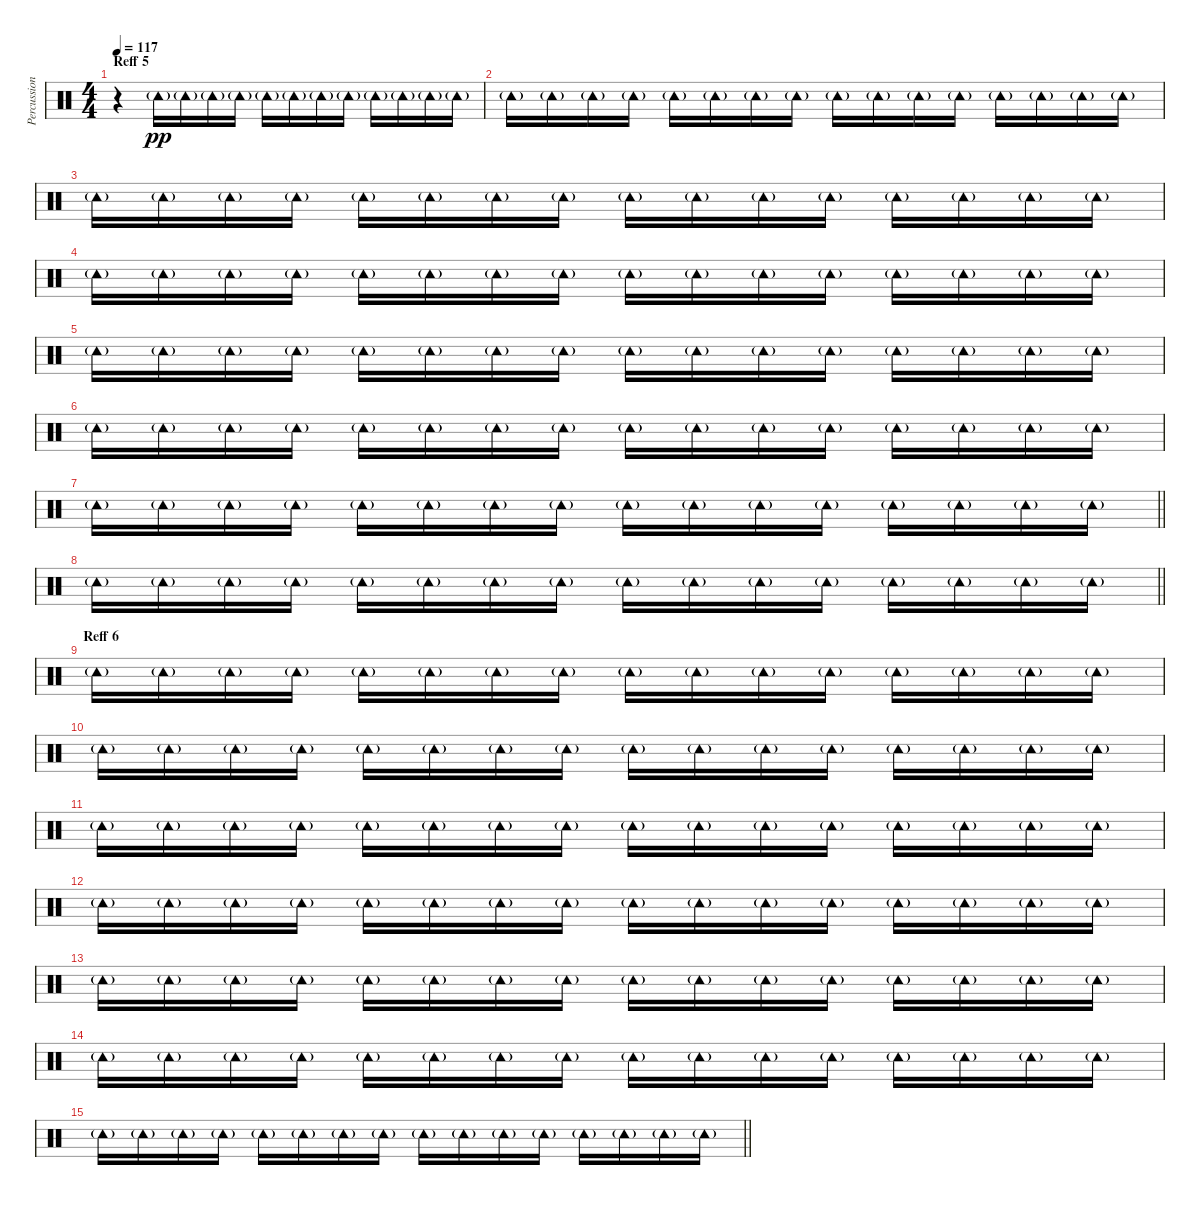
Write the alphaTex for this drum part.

\track ("Percussion 2" "Percussion") {instrument percussion}
\staff {score}
\articulation defaults
\ts (4 4)
\section ("" "Reff 5")
\tempo 117
\clef neutral
\ks c
r.4{dy pp} "Tambourine (hit)"{g}.16 "Tambourine (hit)"{g}.16 "Tambourine (hit)"{g}.16 "Tambourine (hit)"{g}.16 "Tambourine (hit)"{g}.16 "Tambourine (hit)"{g}.16 "Tambourine (hit)"{g}.16 "Tambourine (hit)"{g}.16 "Tambourine (hit)"{g}.16 "Tambourine (hit)"{g}.16 "Tambourine (hit)"{g}.16 "Tambourine (hit)"{g}.16 |
"Tambourine (hit)"{g}.16 "Tambourine (hit)"{g}.16 "Tambourine (hit)"{g}.16 "Tambourine (hit)"{g}.16 "Tambourine (hit)"{g}.16 "Tambourine (hit)"{g}.16 "Tambourine (hit)"{g}.16 "Tambourine (hit)"{g}.16 "Tambourine (hit)"{g}.16 "Tambourine (hit)"{g}.16 "Tambourine (hit)"{g}.16 "Tambourine (hit)"{g}.16 "Tambourine (hit)"{g}.16 "Tambourine (hit)"{g}.16 "Tambourine (hit)"{g}.16 "Tambourine (hit)"{g}.16 |
"Tambourine (hit)"{g}.16 "Tambourine (hit)"{g}.16 "Tambourine (hit)"{g}.16 "Tambourine (hit)"{g}.16 "Tambourine (hit)"{g}.16 "Tambourine (hit)"{g}.16 "Tambourine (hit)"{g}.16 "Tambourine (hit)"{g}.16 "Tambourine (hit)"{g}.16 "Tambourine (hit)"{g}.16 "Tambourine (hit)"{g}.16 "Tambourine (hit)"{g}.16 "Tambourine (hit)"{g}.16 "Tambourine (hit)"{g}.16 "Tambourine (hit)"{g}.16 "Tambourine (hit)"{g}.16 |
"Tambourine (hit)"{g}.16 "Tambourine (hit)"{g}.16 "Tambourine (hit)"{g}.16 "Tambourine (hit)"{g}.16 "Tambourine (hit)"{g}.16 "Tambourine (hit)"{g}.16 "Tambourine (hit)"{g}.16 "Tambourine (hit)"{g}.16 "Tambourine (hit)"{g}.16 "Tambourine (hit)"{g}.16 "Tambourine (hit)"{g}.16 "Tambourine (hit)"{g}.16 "Tambourine (hit)"{g}.16 "Tambourine (hit)"{g}.16 "Tambourine (hit)"{g}.16 "Tambourine (hit)"{g}.16 |
"Tambourine (hit)"{g}.16 "Tambourine (hit)"{g}.16 "Tambourine (hit)"{g}.16 "Tambourine (hit)"{g}.16 "Tambourine (hit)"{g}.16 "Tambourine (hit)"{g}.16 "Tambourine (hit)"{g}.16 "Tambourine (hit)"{g}.16 "Tambourine (hit)"{g}.16 "Tambourine (hit)"{g}.16 "Tambourine (hit)"{g}.16 "Tambourine (hit)"{g}.16 "Tambourine (hit)"{g}.16 "Tambourine (hit)"{g}.16 "Tambourine (hit)"{g}.16 "Tambourine (hit)"{g}.16 |
"Tambourine (hit)"{g}.16 "Tambourine (hit)"{g}.16 "Tambourine (hit)"{g}.16 "Tambourine (hit)"{g}.16 "Tambourine (hit)"{g}.16 "Tambourine (hit)"{g}.16 "Tambourine (hit)"{g}.16 "Tambourine (hit)"{g}.16 "Tambourine (hit)"{g}.16 "Tambourine (hit)"{g}.16 "Tambourine (hit)"{g}.16 "Tambourine (hit)"{g}.16 "Tambourine (hit)"{g}.16 "Tambourine (hit)"{g}.16 "Tambourine (hit)"{g}.16 "Tambourine (hit)"{g}.16 |
\barLineRight lightlight "Tambourine (hit)"{g}.16 "Tambourine (hit)"{g}.16 "Tambourine (hit)"{g}.16 "Tambourine (hit)"{g}.16 "Tambourine (hit)"{g}.16 "Tambourine (hit)"{g}.16 "Tambourine (hit)"{g}.16 "Tambourine (hit)"{g}.16 "Tambourine (hit)"{g}.16 "Tambourine (hit)"{g}.16 "Tambourine (hit)"{g}.16 "Tambourine (hit)"{g}.16 "Tambourine (hit)"{g}.16 "Tambourine (hit)"{g}.16 "Tambourine (hit)"{g}.16 "Tambourine (hit)"{g}.16
|
\barLineRight lightlight "Tambourine (hit)"{g}.16 "Tambourine (hit)"{g}.16 "Tambourine (hit)"{g}.16 "Tambourine (hit)"{g}.16 "Tambourine (hit)"{g}.16 "Tambourine (hit)"{g}.16 "Tambourine (hit)"{g}.16 "Tambourine (hit)"{g}.16 "Tambourine (hit)"{g}.16 "Tambourine (hit)"{g}.16 "Tambourine (hit)"{g}.16 "Tambourine (hit)"{g}.16 "Tambourine (hit)"{g}.16 "Tambourine (hit)"{g}.16 "Tambourine (hit)"{g}.16 "Tambourine (hit)"{g}.16
|
\section ("" "Reff 6")
"Tambourine (hit)"{g}.16 "Tambourine (hit)"{g}.16 "Tambourine (hit)"{g}.16 "Tambourine (hit)"{g}.16 "Tambourine (hit)"{g}.16 "Tambourine (hit)"{g}.16 "Tambourine (hit)"{g}.16 "Tambourine (hit)"{g}.16 "Tambourine (hit)"{g}.16 "Tambourine (hit)"{g}.16 "Tambourine (hit)"{g}.16 "Tambourine (hit)"{g}.16 "Tambourine (hit)"{g}.16 "Tambourine (hit)"{g}.16 "Tambourine (hit)"{g}.16 "Tambourine (hit)"{g}.16 |
"Tambourine (hit)"{g}.16 "Tambourine (hit)"{g}.16 "Tambourine (hit)"{g}.16 "Tambourine (hit)"{g}.16 "Tambourine (hit)"{g}.16 "Tambourine (hit)"{g}.16 "Tambourine (hit)"{g}.16 "Tambourine (hit)"{g}.16 "Tambourine (hit)"{g}.16 "Tambourine (hit)"{g}.16 "Tambourine (hit)"{g}.16 "Tambourine (hit)"{g}.16 "Tambourine (hit)"{g}.16 "Tambourine (hit)"{g}.16 "Tambourine (hit)"{g}.16 "Tambourine (hit)"{g}.16 |
"Tambourine (hit)"{g}.16 "Tambourine (hit)"{g}.16 "Tambourine (hit)"{g}.16 "Tambourine (hit)"{g}.16 "Tambourine (hit)"{g}.16 "Tambourine (hit)"{g}.16 "Tambourine (hit)"{g}.16 "Tambourine (hit)"{g}.16 "Tambourine (hit)"{g}.16 "Tambourine (hit)"{g}.16 "Tambourine (hit)"{g}.16 "Tambourine (hit)"{g}.16 "Tambourine (hit)"{g}.16 "Tambourine (hit)"{g}.16 "Tambourine (hit)"{g}.16 "Tambourine (hit)"{g}.16 |
"Tambourine (hit)"{g}.16 "Tambourine (hit)"{g}.16 "Tambourine (hit)"{g}.16 "Tambourine (hit)"{g}.16 "Tambourine (hit)"{g}.16 "Tambourine (hit)"{g}.16 "Tambourine (hit)"{g}.16 "Tambourine (hit)"{g}.16 "Tambourine (hit)"{g}.16 "Tambourine (hit)"{g}.16 "Tambourine (hit)"{g}.16 "Tambourine (hit)"{g}.16 "Tambourine (hit)"{g}.16 "Tambourine (hit)"{g}.16 "Tambourine (hit)"{g}.16 "Tambourine (hit)"{g}.16 |
"Tambourine (hit)"{g}.16 "Tambourine (hit)"{g}.16 "Tambourine (hit)"{g}.16 "Tambourine (hit)"{g}.16 "Tambourine (hit)"{g}.16 "Tambourine (hit)"{g}.16 "Tambourine (hit)"{g}.16 "Tambourine (hit)"{g}.16 "Tambourine (hit)"{g}.16 "Tambourine (hit)"{g}.16 "Tambourine (hit)"{g}.16 "Tambourine (hit)"{g}.16 "Tambourine (hit)"{g}.16 "Tambourine (hit)"{g}.16 "Tambourine (hit)"{g}.16 "Tambourine (hit)"{g}.16 |
"Tambourine (hit)"{g}.16 "Tambourine (hit)"{g}.16 "Tambourine (hit)"{g}.16 "Tambourine (hit)"{g}.16 "Tambourine (hit)"{g}.16 "Tambourine (hit)"{g}.16 "Tambourine (hit)"{g}.16 "Tambourine (hit)"{g}.16 "Tambourine (hit)"{g}.16 "Tambourine (hit)"{g}.16 "Tambourine (hit)"{g}.16 "Tambourine (hit)"{g}.16 "Tambourine (hit)"{g}.16 "Tambourine (hit)"{g}.16 "Tambourine (hit)"{g}.16 "Tambourine (hit)"{g}.16 |
\barLineRight lightlight "Tambourine (hit)"{g}.16 "Tambourine (hit)"{g}.16 "Tambourine (hit)"{g}.16 "Tambourine (hit)"{g}.16 "Tambourine (hit)"{g}.16 "Tambourine (hit)"{g}.16 "Tambourine (hit)"{g}.16 "Tambourine (hit)"{g}.16 "Tambourine (hit)"{g}.16 "Tambourine (hit)"{g}.16 "Tambourine (hit)"{g}.16 "Tambourine (hit)"{g}.16 "Tambourine (hit)"{g}.16 "Tambourine (hit)"{g}.16 "Tambourine (hit)"{g}.16 "Tambourine (hit)"{g}.16
